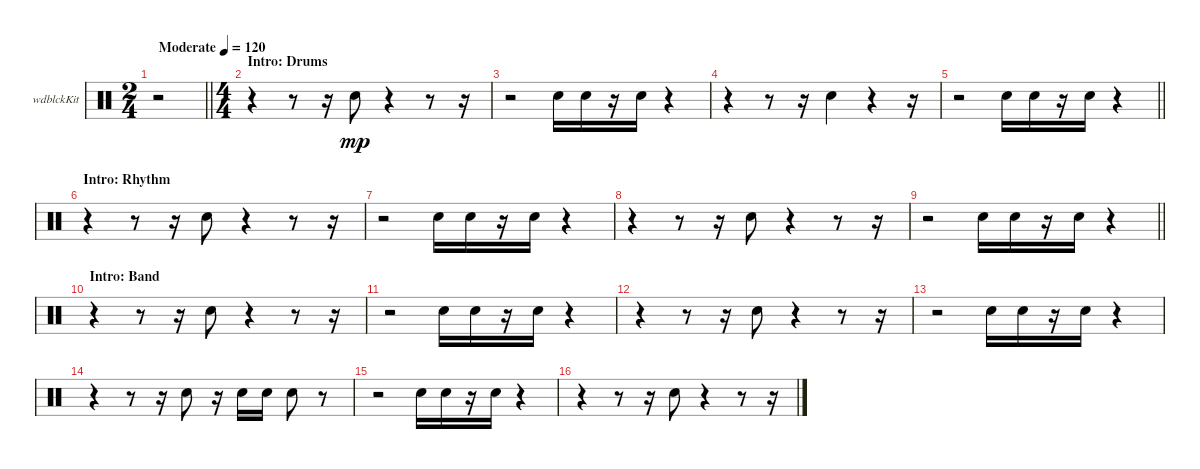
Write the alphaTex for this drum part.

\bracketExtendMode groupsimilarinstruments
\firstSystemTrackNameOrientation horizontal
\otherSystemsTrackNameOrientation horizontal
\track ("Woodblock" "wdblckKit") {instrument percussion}
\staff {score}
\articulation defaults
\voice
\ts (2 4)
\beaming (8 2 2)
\tempo (120 "Moderate")
\clef neutral
\barLineRight lightlight
\ks c
r.2{dy mp} |
\ts (4 4)
\beaming (8 2 2 2 2)
\section ("" "Intro: Drums")
r.4 r.8 r.16 "Snare (hit) 2".8 r.4 r.8 r.16 |
r.2 "Snare (hit) 2".16 "Snare (hit) 2".16 r.16 "Snare (hit) 2".16 r.4 |
r.4 r.8 r.16 "Snare (hit) 2".4 r.4 r.16 |
\barLineRight lightlight
r.2 "Snare (hit) 2".16 "Snare (hit) 2".16 r.16 "Snare (hit) 2".16 r.4 |
\section ("" "Intro: Rhythm")
r.4 r.8 r.16 "Snare (hit) 2".8 r.4 r.8 r.16 |
r.2 "Snare (hit) 2".16 "Snare (hit) 2".16 r.16 "Snare (hit) 2".16 r.4 |
r.4 r.8 r.16 "Snare (hit) 2".8 r.4 r.8 r.16 |
\barLineRight lightlight
r.2 "Snare (hit) 2".16 "Snare (hit) 2".16 r.16 "Snare (hit) 2".16 r.4 |
\section ("" "Intro: Band")
r.4 r.8 r.16 "Snare (hit) 2".8 r.4 r.8 r.16 |
r.2 "Snare (hit) 2".16 "Snare (hit) 2".16 r.16 "Snare (hit) 2".16 r.4 |
r.4 r.8 r.16 "Snare (hit) 2".8 r.4 r.8 r.16 |
r.2 "Snare (hit) 2".16 "Snare (hit) 2".16 r.16 "Snare (hit) 2".16 r.4 |
r.4 r.8 r.16 "Snare (hit) 2".8 r.16 "Snare (hit) 2".16 "Snare (hit) 2".16 "Snare (hit) 2".8 r.8 |
r.2 "Snare (hit) 2".16 "Snare (hit) 2".16 r.16 "Snare (hit) 2".16 r.4 |
r.4 r.8 r.16 "Snare (hit) 2".8 r.4 r.8 r.16
\voice
\clef neutral
\ottava regular
\simile none
\barLineRight lightlight
\ks c
r.2{dy mf} |
|
|
|
\barLineRight lightlight
|
|
|
|
\barLineRight lightlight
|
|
|
|
|
|
|
